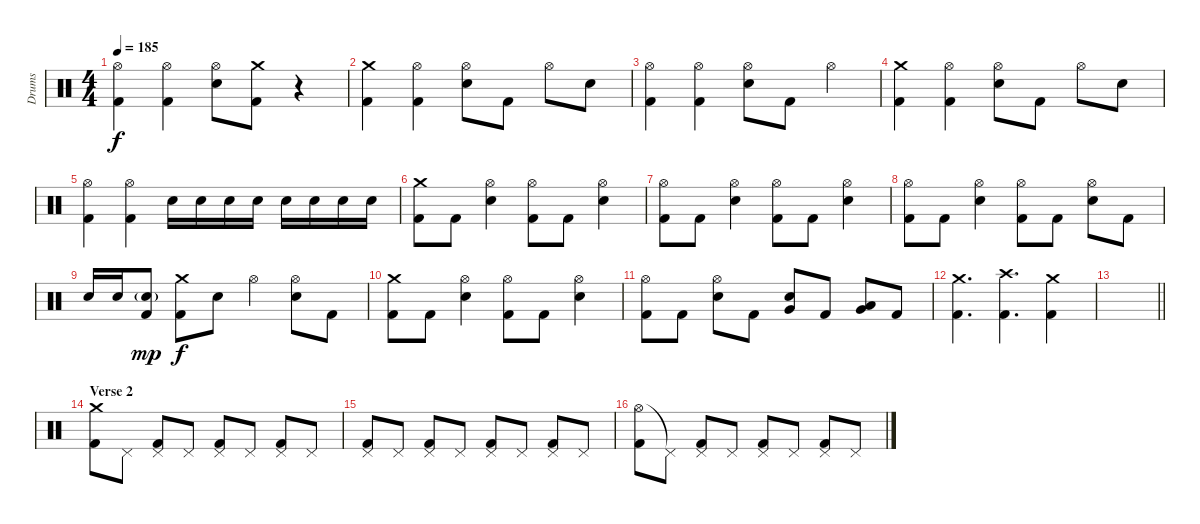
\track ("Drums" "Drums") {instrument percussion}
\staff {score}
\articulation defaults
\ts (4 4)
\tempo 185
\clef neutral
\ks c
("Hi-Hat (open)" "Kick (hit) 2").4{dy f} ("Hi-Hat (open)" "Kick (hit) 2").4 ("Hi-Hat (open)" "Electric Snare (hit)").8 ("Crash medium (hit)" "Kick (hit) 2").8 r.4 |
("Crash medium (hit)" "Kick (hit) 2").4 ("Hi-Hat (open)" "Kick (hit) 2").4 ("Hi-Hat (open)" "Electric Snare (hit)").8 "Kick (hit) 2".8 "Hi-Hat (open)".8 "Electric Snare (hit)".8 |
("Hi-Hat (open)" "Kick (hit) 2").4 ("Hi-Hat (open)" "Kick (hit) 2").4 ("Hi-Hat (open)" "Electric Snare (hit)").8 "Kick (hit) 2".8 "Hi-Hat (open)".4 |
("Crash medium (hit)" "Kick (hit) 2").4 ("Hi-Hat (open)" "Kick (hit) 2").4 ("Hi-Hat (open)" "Electric Snare (hit)").8 "Kick (hit) 2".8 "Hi-Hat (open)".8 "Electric Snare (hit)".8 |
("Hi-Hat (open)" "Kick (hit) 2").4 ("Hi-Hat (open)" "Kick (hit) 2").4 "Electric Snare (hit)".16 "Electric Snare (hit)".16 "Electric Snare (hit)".16 "Electric Snare (hit)".16 "Electric Snare (hit)".16 "Electric Snare (hit)".16 "Electric Snare (hit)".16 "Electric Snare (hit)".16 |
("Crash medium (hit)" "Kick (hit) 2").8 "Kick (hit) 2".8 ("Hi-Hat (open)" "Electric Snare (hit)").4 ("Hi-Hat (open)" "Kick (hit) 2").8 "Kick (hit) 2".8 ("Hi-Hat (open)" "Electric Snare (hit)").4 |
("Hi-Hat (open)" "Kick (hit) 2").8 "Kick (hit) 2".8 ("Hi-Hat (open)" "Electric Snare (hit)").4 ("Hi-Hat (open)" "Kick (hit) 2").8 "Kick (hit) 2".8 ("Hi-Hat (open)" "Electric Snare (hit)").4 |
("Hi-Hat (open)" "Kick (hit) 2").8 "Kick (hit) 2".8 ("Hi-Hat (open)" "Electric Snare (hit)").4 ("Hi-Hat (open)" "Kick (hit) 2").8 "Kick (hit) 2".8 ("Hi-Hat (open)" "Electric Snare (hit)").8 "Kick (hit) 2".8 |
"Electric Snare (hit)".16 "Electric Snare (hit)".16 ("Electric Snare (hit)"{g} "Kick (hit) 2").8{dy mp} ("Crash medium (hit)" "Kick (hit) 2").8{dy f} "Electric Snare (hit)".8 "Hi-Hat (open)".4 ("Hi-Hat (open)" "Electric Snare (hit)").8 "Kick (hit) 2".8 |
("Crash medium (hit)" "Kick (hit) 2").8 "Kick (hit) 2".8 ("Hi-Hat (open)" "Electric Snare (hit)").4 ("Hi-Hat (open)" "Kick (hit) 2").8 "Kick (hit) 2".8 ("Hi-Hat (open)" "Electric Snare (hit)").4 |
("Hi-Hat (open)" "Kick (hit) 2").8 "Kick (hit) 2".8 ("Hi-Hat (open)" "Electric Snare (hit)").8 "Kick (hit) 2".8 ("Very Low Tom (hit)" "Electric Snare (hit)").8 "Kick (hit) 2".8 ("Very Low Tom (hit)" "Low Tom (hit)").8 "Kick (hit) 2".8 |
("Crash medium (hit)" "Kick (hit) 2").4{d} ("Crash high (hit)" "Kick (hit) 2").4{d} ("Crash medium (hit)" "Kick (hit) 2").4 |
\barLineRight lightlight
|
\section ("" "Verse 2")
("Crash medium (hit)" "Kick (hit) 2").8 "Pedal Hi-Hat (hit)".8 ("Pedal Hi-Hat (hit)" "Kick (hit) 2").8 "Pedal Hi-Hat (hit)".8 ("Pedal Hi-Hat (hit)" "Kick (hit) 2").8 "Pedal Hi-Hat (hit)".8 ("Pedal Hi-Hat (hit)" "Kick (hit) 2").8 "Pedal Hi-Hat (hit)".8 |
("Pedal Hi-Hat (hit)" "Kick (hit) 2").8 "Pedal Hi-Hat (hit)".8 ("Pedal Hi-Hat (hit)" "Kick (hit) 2").8 "Pedal Hi-Hat (hit)".8 ("Pedal Hi-Hat (hit)" "Kick (hit) 2").8 "Pedal Hi-Hat (hit)".8 ("Pedal Hi-Hat (hit)" "Kick (hit) 2").8 "Pedal Hi-Hat (hit)".8 |
("Hi-Hat (open)" "Kick (hit) 2").8 "Pedal Hi-Hat (hit)"{t}.8 ("Pedal Hi-Hat (hit)" "Kick (hit) 2").8 "Pedal Hi-Hat (hit)".8 ("Pedal Hi-Hat (hit)" "Kick (hit) 2").8 "Pedal Hi-Hat (hit)".8 ("Pedal Hi-Hat (hit)" "Kick (hit) 2").8 "Pedal Hi-Hat (hit)".8
